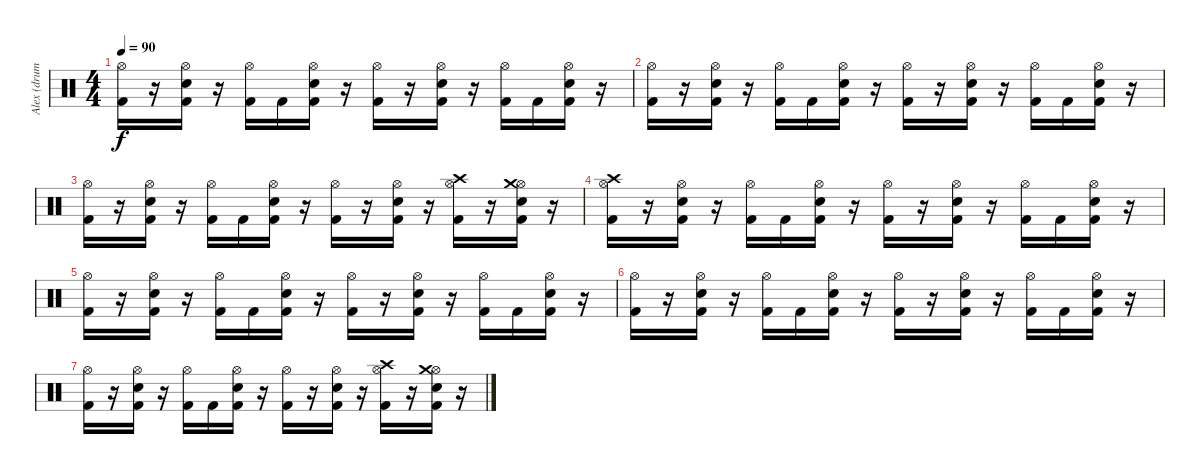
\track ("Alex (drums)" "Alex (drum") {instrument percussion}
\staff {score}
\articulation defaults
\ts (4 4)
\tempo 90
\clef neutral
\ks c
("Hi-Hat (open)" "Kick (hit) 2").16{dy f} r.16 ("Hi-Hat (open)" "Snare (hit) 2" "Kick (hit) 2").16 r.16 ("Hi-Hat (open)" "Kick (hit) 2").16 "Kick (hit) 2".16 ("Hi-Hat (open)" "Snare (hit) 2" "Kick (hit) 2").16 r.16 ("Hi-Hat (open)" "Kick (hit) 2").16 r.16 ("Hi-Hat (open)" "Snare (hit) 2" "Kick (hit) 2").16 r.16 ("Hi-Hat (open)" "Kick (hit) 2").16 "Kick (hit) 2".16 ("Hi-Hat (open)" "Snare (hit) 2" "Kick (hit) 2").16 r.16 |
("Hi-Hat (open)" "Kick (hit) 2").16 r.16 ("Hi-Hat (open)" "Snare (hit) 2" "Kick (hit) 2").16 r.16 ("Hi-Hat (open)" "Kick (hit) 2").16 "Kick (hit) 2".16 ("Hi-Hat (open)" "Snare (hit) 2" "Kick (hit) 2").16 r.16 ("Hi-Hat (open)" "Kick (hit) 2").16 r.16 ("Hi-Hat (open)" "Snare (hit) 2" "Kick (hit) 2").16 r.16 ("Hi-Hat (open)" "Kick (hit) 2").16 "Kick (hit) 2".16 ("Hi-Hat (open)" "Snare (hit) 2" "Kick (hit) 2").16 r.16 |
("Hi-Hat (open)" "Kick (hit) 2").16 r.16 ("Hi-Hat (open)" "Snare (hit) 2" "Kick (hit) 2").16 r.16 ("Hi-Hat (open)" "Kick (hit) 2").16 "Kick (hit) 2".16 ("Hi-Hat (open)" "Snare (hit) 2" "Kick (hit) 2").16 r.16 ("Hi-Hat (open)" "Kick (hit) 2").16 r.16 ("Hi-Hat (open)" "Snare (hit) 2" "Kick (hit) 2").16 r.16 ("Hi-Hat (open)" "Kick (hit) 2" "Crash high (hit)").16 r.16 ("Hi-Hat (open)" "Snare (hit) 2" "Kick (hit) 2" "Crash medium (hit)").16 r.16 |
("Hi-Hat (open)" "Kick (hit) 2" "Crash high (hit)").16 r.16 ("Hi-Hat (open)" "Snare (hit) 2" "Kick (hit) 2").16 r.16 ("Hi-Hat (open)" "Kick (hit) 2").16 "Kick (hit) 2".16 ("Hi-Hat (open)" "Snare (hit) 2" "Kick (hit) 2").16 r.16 ("Hi-Hat (open)" "Kick (hit) 2").16 r.16 ("Hi-Hat (open)" "Snare (hit) 2" "Kick (hit) 2").16 r.16 ("Hi-Hat (open)" "Kick (hit) 2").16 "Kick (hit) 2".16 ("Hi-Hat (open)" "Snare (hit) 2" "Kick (hit) 2").16 r.16 |
("Hi-Hat (open)" "Kick (hit) 2").16 r.16 ("Hi-Hat (open)" "Snare (hit) 2" "Kick (hit) 2").16 r.16 ("Hi-Hat (open)" "Kick (hit) 2").16 "Kick (hit) 2".16 ("Hi-Hat (open)" "Snare (hit) 2" "Kick (hit) 2").16 r.16 ("Hi-Hat (open)" "Kick (hit) 2").16 r.16 ("Hi-Hat (open)" "Snare (hit) 2" "Kick (hit) 2").16 r.16 ("Hi-Hat (open)" "Kick (hit) 2").16 "Kick (hit) 2".16 ("Hi-Hat (open)" "Snare (hit) 2" "Kick (hit) 2").16 r.16 |
("Hi-Hat (open)" "Kick (hit) 2").16 r.16 ("Hi-Hat (open)" "Snare (hit) 2" "Kick (hit) 2").16 r.16 ("Hi-Hat (open)" "Kick (hit) 2").16 "Kick (hit) 2".16 ("Hi-Hat (open)" "Snare (hit) 2" "Kick (hit) 2").16 r.16 ("Hi-Hat (open)" "Kick (hit) 2").16 r.16 ("Hi-Hat (open)" "Snare (hit) 2" "Kick (hit) 2").16 r.16 ("Hi-Hat (open)" "Kick (hit) 2").16 "Kick (hit) 2".16 ("Hi-Hat (open)" "Snare (hit) 2" "Kick (hit) 2").16 r.16 |
("Hi-Hat (open)" "Kick (hit) 2").16 r.16 ("Hi-Hat (open)" "Snare (hit) 2" "Kick (hit) 2").16 r.16 ("Hi-Hat (open)" "Kick (hit) 2").16 "Kick (hit) 2".16 ("Hi-Hat (open)" "Snare (hit) 2" "Kick (hit) 2").16 r.16 ("Hi-Hat (open)" "Kick (hit) 2").16 r.16 ("Hi-Hat (open)" "Snare (hit) 2" "Kick (hit) 2").16 r.16 ("Hi-Hat (open)" "Kick (hit) 2" "Crash high (hit)").16 r.16 ("Hi-Hat (open)" "Snare (hit) 2" "Kick (hit) 2" "Crash medium (hit)").16 r.16
